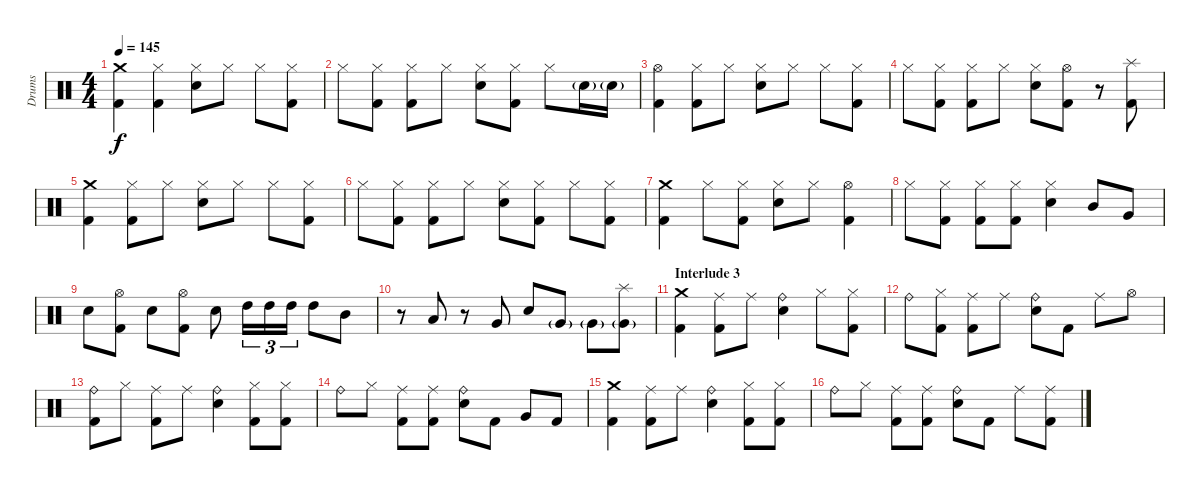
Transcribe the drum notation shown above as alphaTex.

\track ("Drums" "Drums") {instrument percussion}
\staff {score}
\articulation defaults
\ts (4 4)
\tempo 145
\clef neutral
\ks c
("Crash medium (hit)" "Kick (hit) 2").4{dy f} ("Hi-Hat (closed)" "Kick (hit) 2").4 ("Hi-Hat (closed)" "Snare (hit) 2").8 "Hi-Hat (closed)".8 "Hi-Hat (closed)".8 ("Hi-Hat (closed)" "Kick (hit) 2").8 |
"Hi-Hat (closed)".8 ("Hi-Hat (closed)" "Kick (hit) 2").8 ("Hi-Hat (closed)" "Kick (hit) 2").8 "Hi-Hat (closed)".8 ("Hi-Hat (closed)" "Snare (hit) 2").8 ("Hi-Hat (closed)" "Kick (hit) 2").8 "Hi-Hat (closed)".8 "Snare (hit) 2"{g}.16 "Snare (hit) 2"{g}.16 |
("Hi-Hat (open)" "Kick (hit) 2").4 ("Hi-Hat (closed)" "Kick (hit) 2").8 "Hi-Hat (closed)".8 ("Hi-Hat (closed)" "Snare (hit) 2").8 "Hi-Hat (closed)".8 "Hi-Hat (closed)".8 ("Hi-Hat (closed)" "Kick (hit) 2").8 |
"Hi-Hat (closed)".8 ("Hi-Hat (closed)" "Kick (hit) 2").8 ("Hi-Hat (closed)" "Kick (hit) 2").8 "Hi-Hat (closed)".8 ("Hi-Hat (closed)" "Snare (hit) 2").8 ("Hi-Hat (open)" "Kick (hit) 2").8 r.8 ("Splash (hit)" "Kick (hit) 2").8 |
("Crash medium (hit)" "Kick (hit) 2").4 ("Hi-Hat (closed)" "Kick (hit) 2").8 "Hi-Hat (closed)".8 ("Hi-Hat (closed)" "Snare (hit) 2").8 "Hi-Hat (closed)".8 "Hi-Hat (closed)".8 ("Hi-Hat (closed)" "Kick (hit) 2").8 |
"Hi-Hat (closed)".8 ("Hi-Hat (closed)" "Kick (hit) 2").8 ("Hi-Hat (closed)" "Kick (hit) 2").8 "Hi-Hat (closed)".8 ("Hi-Hat (closed)" "Snare (hit) 2").8 ("Hi-Hat (closed)" "Kick (hit) 2").8 "Hi-Hat (closed)".8 ("Hi-Hat (closed)" "Kick (hit) 2").8 |
("Crash medium (hit)" "Kick (hit) 2").4 "Hi-Hat (closed)".8 ("Hi-Hat (closed)" "Kick (hit) 2").8 ("Hi-Hat (closed)" "Snare (hit) 2").8 "Hi-Hat (closed)".8 ("Hi-Hat (open)" "Kick (hit) 2").4 |
"Hi-Hat (closed)".8 ("Hi-Hat (closed)" "Kick (hit) 2").8 ("Hi-Hat (closed)" "Kick (hit) 2").8 ("Hi-Hat (closed)" "Kick (hit) 2").8 ("Hi-Hat (closed)" "Snare (hit) 2").4 "Mid Tom (hit)".8 "Very Low Tom (hit)".8 |
"Snare (hit) 2".8 ("Hi-Hat (open)" "Kick (hit) 2").8 "Snare (hit) 2".8 ("Hi-Hat (open)" "Kick (hit) 2").8 "Snare (hit) 2".8 "High Tom (hit)".16{tu (3 2)} "High Tom (hit)".16{tu (3 2)} "High Tom (hit)".16{tu (3 2)} "High Tom (hit)".8 "Mid Tom (hit)".8 |
r.8 "Low Tom (hit)".8 r.8 "Very Low Tom (hit)".8 "Snare (hit) 2".8 "Very Low Tom (hit)"{g}.8 "Very Low Tom (hit)"{g}.8 ("Splash (hit)" "Very Low Tom (hit)"{g}).8 |
\section ("" "Interlude 3")
("Crash medium (hit)" "Kick (hit) 2").4 ("Ride (middle)" "Kick (hit) 2").8 "Ride (middle)".8 ("Ride (bell)" "Snare (hit) 2").4 "Hi-Hat (closed)".8 ("Hi-Hat (closed)" "Kick (hit) 2").8 |
"Ride (bell)".8 ("Hi-Hat (closed)" "Kick (hit) 2").8 ("Ride (middle)" "Kick (hit) 2").8 "Ride (middle)".8 ("Ride (bell)" "Snare (hit) 2").8 "Kick (hit) 2".8 "Ride (middle)".8 "Hi-Hat (open)".8 |
("Ride (bell)" "Kick (hit) 2").8 "Hi-Hat (closed)".8 ("Ride (middle)" "Kick (hit) 2").8 "Ride (middle)".8 ("Ride (bell)" "Snare (hit) 2").4 ("Hi-Hat (closed)" "Kick (hit) 2").8 ("Hi-Hat (closed)" "Kick (hit) 2").8 |
"Ride (bell)".8 "Hi-Hat (closed)".8 ("Ride (middle)" "Kick (hit) 2").8 ("Ride (middle)" "Kick (hit) 2").8 ("Ride (bell)" "Snare (hit) 2").8 "Kick (hit) 2".8 "Very Low Tom (hit)".8 "Kick (hit) 2".8 |
("Crash medium (hit)" "Kick (hit) 2").4 ("Ride (middle)" "Kick (hit) 2").8 "Ride (middle)".8 ("Ride (bell)" "Snare (hit) 2").4 ("Hi-Hat (closed)" "Kick (hit) 2").8 ("Hi-Hat (closed)" "Kick (hit) 2").8 |
"Ride (bell)".8 "Hi-Hat (closed)".8 ("Ride (middle)" "Kick (hit) 2").8 ("Ride (middle)" "Kick (hit) 2").8 ("Ride (bell)" "Snare (hit) 2").8 "Kick (hit) 2".8 "Ride (middle)".8 ("Ride (middle)" "Kick (hit) 2").8
